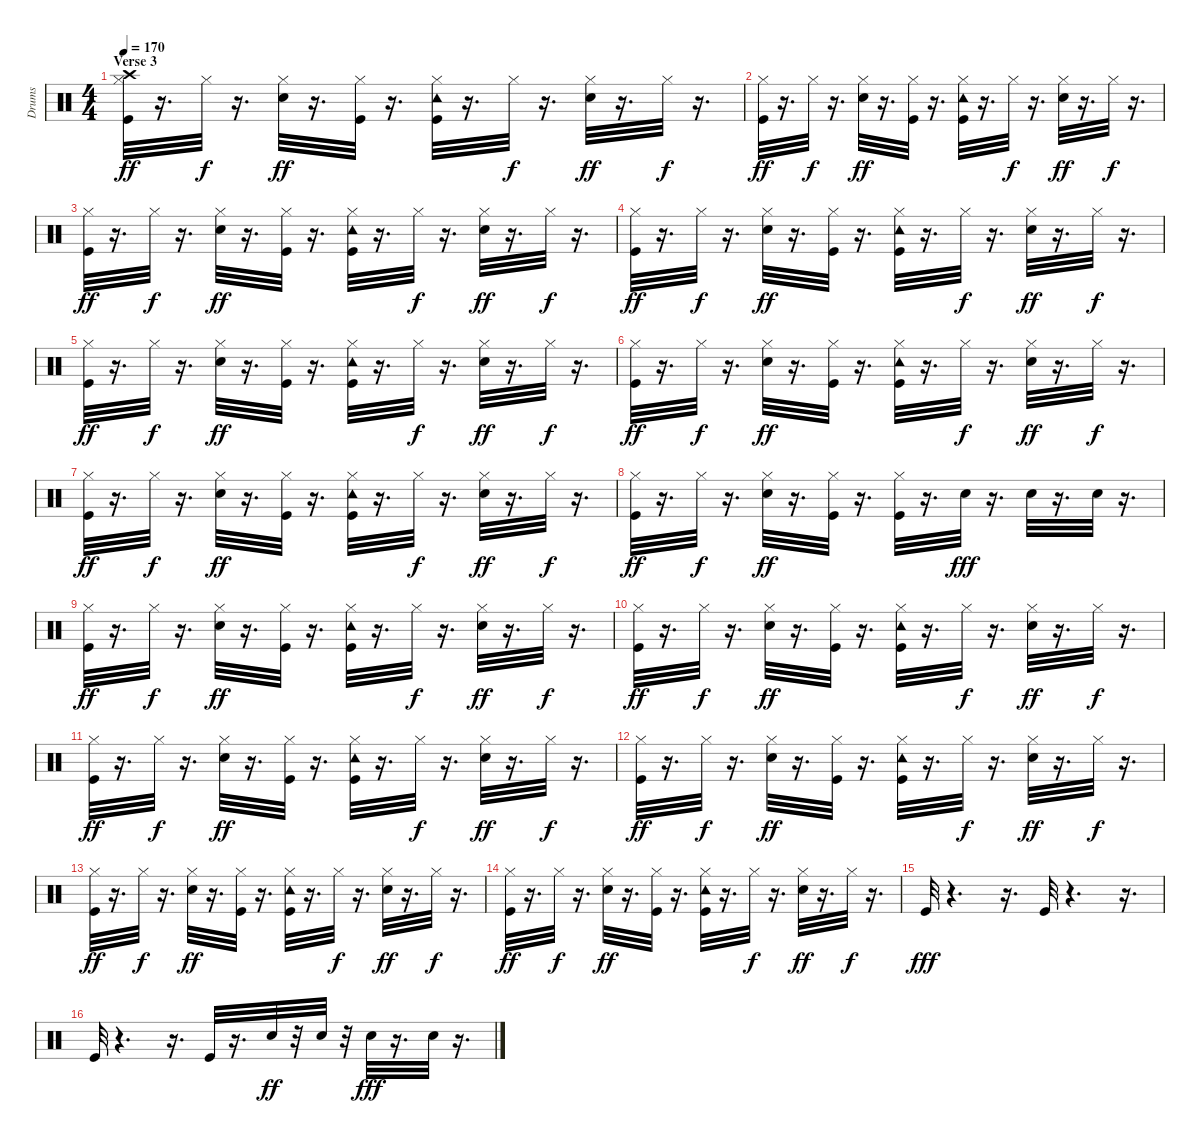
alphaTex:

\track ("Drums" "Drums") {instrument percussion}
\staff {score}
\articulation defaults
\ts (4 4)
\section ("" "Verse 3")
\tempo 170
\clef neutral
\ks c
("Kick (hit)" "Crash high (hit)" "Hi-Hat (closed)").32{dy ff} r.16{d} "Hi-Hat (closed)".32{dy f} r.16{d} ("Snare (hit) 2" "Hi-Hat (closed)").32{dy ff} r.16{d} ("Hi-Hat (closed)" "Kick (hit)").32 r.16{d} ("Kick (hit)" "Tambourine (hit)" "Hi-Hat (closed)").32 r.16{d} "Hi-Hat (closed)".32{dy f} r.16{d} ("Snare (hit) 2" "Hi-Hat (closed)").32{dy ff} r.16{d} "Hi-Hat (closed)".32{dy f} r.16{d} |
("Kick (hit)" "Hi-Hat (closed)").32{dy ff} r.16{d} "Hi-Hat (closed)".32{dy f} r.16{d} ("Snare (hit) 2" "Hi-Hat (closed)").32{dy ff} r.16{d} ("Hi-Hat (closed)" "Kick (hit)").32 r.16{d} ("Kick (hit)" "Tambourine (hit)" "Hi-Hat (closed)").32 r.16{d} "Hi-Hat (closed)".32{dy f} r.16{d} ("Snare (hit) 2" "Hi-Hat (closed)").32{dy ff} r.16{d} "Hi-Hat (closed)".32{dy f} r.16{d} |
("Kick (hit)" "Hi-Hat (closed)").32{dy ff} r.16{d} "Hi-Hat (closed)".32{dy f} r.16{d} ("Snare (hit) 2" "Hi-Hat (closed)").32{dy ff} r.16{d} ("Hi-Hat (closed)" "Kick (hit)").32 r.16{d} ("Kick (hit)" "Tambourine (hit)" "Hi-Hat (closed)").32 r.16{d} "Hi-Hat (closed)".32{dy f} r.16{d} ("Snare (hit) 2" "Hi-Hat (closed)").32{dy ff} r.16{d} "Hi-Hat (closed)".32{dy f} r.16{d} |
("Kick (hit)" "Hi-Hat (closed)").32{dy ff} r.16{d} "Hi-Hat (closed)".32{dy f} r.16{d} ("Snare (hit) 2" "Hi-Hat (closed)").32{dy ff} r.16{d} ("Hi-Hat (closed)" "Kick (hit)").32 r.16{d} ("Kick (hit)" "Tambourine (hit)" "Hi-Hat (closed)").32 r.16{d} "Hi-Hat (closed)".32{dy f} r.16{d} ("Snare (hit) 2" "Hi-Hat (closed)").32{dy ff} r.16{d} "Hi-Hat (closed)".32{dy f} r.16{d} |
("Kick (hit)" "Hi-Hat (closed)").32{dy ff} r.16{d} "Hi-Hat (closed)".32{dy f} r.16{d} ("Snare (hit) 2" "Hi-Hat (closed)").32{dy ff} r.16{d} ("Hi-Hat (closed)" "Kick (hit)").32 r.16{d} ("Kick (hit)" "Tambourine (hit)" "Hi-Hat (closed)").32 r.16{d} "Hi-Hat (closed)".32{dy f} r.16{d} ("Snare (hit) 2" "Hi-Hat (closed)").32{dy ff} r.16{d} "Hi-Hat (closed)".32{dy f} r.16{d} |
("Kick (hit)" "Hi-Hat (closed)").32{dy ff} r.16{d} "Hi-Hat (closed)".32{dy f} r.16{d} ("Snare (hit) 2" "Hi-Hat (closed)").32{dy ff} r.16{d} ("Hi-Hat (closed)" "Kick (hit)").32 r.16{d} ("Kick (hit)" "Tambourine (hit)" "Hi-Hat (closed)").32 r.16{d} "Hi-Hat (closed)".32{dy f} r.16{d} ("Snare (hit) 2" "Hi-Hat (closed)").32{dy ff} r.16{d} "Hi-Hat (closed)".32{dy f} r.16{d} |
("Kick (hit)" "Hi-Hat (closed)").32{dy ff} r.16{d} "Hi-Hat (closed)".32{dy f} r.16{d} ("Snare (hit) 2" "Hi-Hat (closed)").32{dy ff} r.16{d} ("Hi-Hat (closed)" "Kick (hit)").32 r.16{d} ("Kick (hit)" "Tambourine (hit)" "Hi-Hat (closed)").32 r.16{d} "Hi-Hat (closed)".32{dy f} r.16{d} ("Snare (hit) 2" "Hi-Hat (closed)").32{dy ff} r.16{d} "Hi-Hat (closed)".32{dy f} r.16{d} |
("Kick (hit)" "Hi-Hat (closed)").32{dy ff} r.16{d} "Hi-Hat (closed)".32{dy f} r.16{d} ("Snare (hit) 2" "Hi-Hat (closed)").32{dy ff} r.16{d} ("Hi-Hat (closed)" "Kick (hit)").32 r.16{d} ("Kick (hit)" "Hi-Hat (closed)").32 r.16{d} "Snare (hit) 2".32{dy fff} r.16{d} "Snare (hit) 2".32 r.16{d} "Snare (hit) 2".32 r.16{d} |
("Kick (hit)" "Hi-Hat (closed)").32{dy ff} r.16{d} "Hi-Hat (closed)".32{dy f} r.16{d} ("Snare (hit) 2" "Hi-Hat (closed)").32{dy ff} r.16{d} ("Hi-Hat (closed)" "Kick (hit)").32 r.16{d} ("Kick (hit)" "Tambourine (hit)" "Hi-Hat (closed)").32 r.16{d} "Hi-Hat (closed)".32{dy f} r.16{d} ("Snare (hit) 2" "Hi-Hat (closed)").32{dy ff} r.16{d} "Hi-Hat (closed)".32{dy f} r.16{d} |
("Kick (hit)" "Hi-Hat (closed)").32{dy ff} r.16{d} "Hi-Hat (closed)".32{dy f} r.16{d} ("Snare (hit) 2" "Hi-Hat (closed)").32{dy ff} r.16{d} ("Hi-Hat (closed)" "Kick (hit)").32 r.16{d} ("Kick (hit)" "Tambourine (hit)" "Hi-Hat (closed)").32 r.16{d} "Hi-Hat (closed)".32{dy f} r.16{d} ("Snare (hit) 2" "Hi-Hat (closed)").32{dy ff} r.16{d} "Hi-Hat (closed)".32{dy f} r.16{d} |
("Kick (hit)" "Hi-Hat (closed)").32{dy ff} r.16{d} "Hi-Hat (closed)".32{dy f} r.16{d} ("Snare (hit) 2" "Hi-Hat (closed)").32{dy ff} r.16{d} ("Hi-Hat (closed)" "Kick (hit)").32 r.16{d} ("Kick (hit)" "Tambourine (hit)" "Hi-Hat (closed)").32 r.16{d} "Hi-Hat (closed)".32{dy f} r.16{d} ("Snare (hit) 2" "Hi-Hat (closed)").32{dy ff} r.16{d} "Hi-Hat (closed)".32{dy f} r.16{d} |
("Kick (hit)" "Hi-Hat (closed)").32{dy ff} r.16{d} "Hi-Hat (closed)".32{dy f} r.16{d} ("Snare (hit) 2" "Hi-Hat (closed)").32{dy ff} r.16{d} ("Hi-Hat (closed)" "Kick (hit)").32 r.16{d} ("Kick (hit)" "Tambourine (hit)" "Hi-Hat (closed)").32 r.16{d} "Hi-Hat (closed)".32{dy f} r.16{d} ("Snare (hit) 2" "Hi-Hat (closed)").32{dy ff} r.16{d} "Hi-Hat (closed)".32{dy f} r.16{d} |
("Kick (hit)" "Hi-Hat (closed)").32{dy ff} r.16{d} "Hi-Hat (closed)".32{dy f} r.16{d} ("Snare (hit) 2" "Hi-Hat (closed)").32{dy ff} r.16{d} ("Hi-Hat (closed)" "Kick (hit)").32 r.16{d} ("Kick (hit)" "Tambourine (hit)" "Hi-Hat (closed)").32 r.16{d} "Hi-Hat (closed)".32{dy f} r.16{d} ("Snare (hit) 2" "Hi-Hat (closed)").32{dy ff} r.16{d} "Hi-Hat (closed)".32{dy f} r.16{d} |
("Kick (hit)" "Hi-Hat (closed)").32{dy ff} r.16{d} "Hi-Hat (closed)".32{dy f} r.16{d} ("Snare (hit) 2" "Hi-Hat (closed)").32{dy ff} r.16{d} ("Hi-Hat (closed)" "Kick (hit)").32 r.16{d} ("Kick (hit)" "Tambourine (hit)" "Hi-Hat (closed)").32 r.16{d} "Hi-Hat (closed)".32{dy f} r.16{d} ("Snare (hit) 2" "Hi-Hat (closed)").32{dy ff} r.16{d} "Hi-Hat (closed)".32{dy f} r.16{d} |
"Kick (hit)".32{dy fff} r.4{d} r.16{d} "Kick (hit)".32 r.4{d} r.16{d} |
"Kick (hit)".32 r.4{d} r.16{d} "Kick (hit)".32 r.16{d} "Snare (hit) 2".32{dy ff} r.32 "Snare (hit) 2".32 r.32 "Snare (hit) 2".32{dy fff} r.16{d} "Snare (hit) 2".32 r.16{d}
